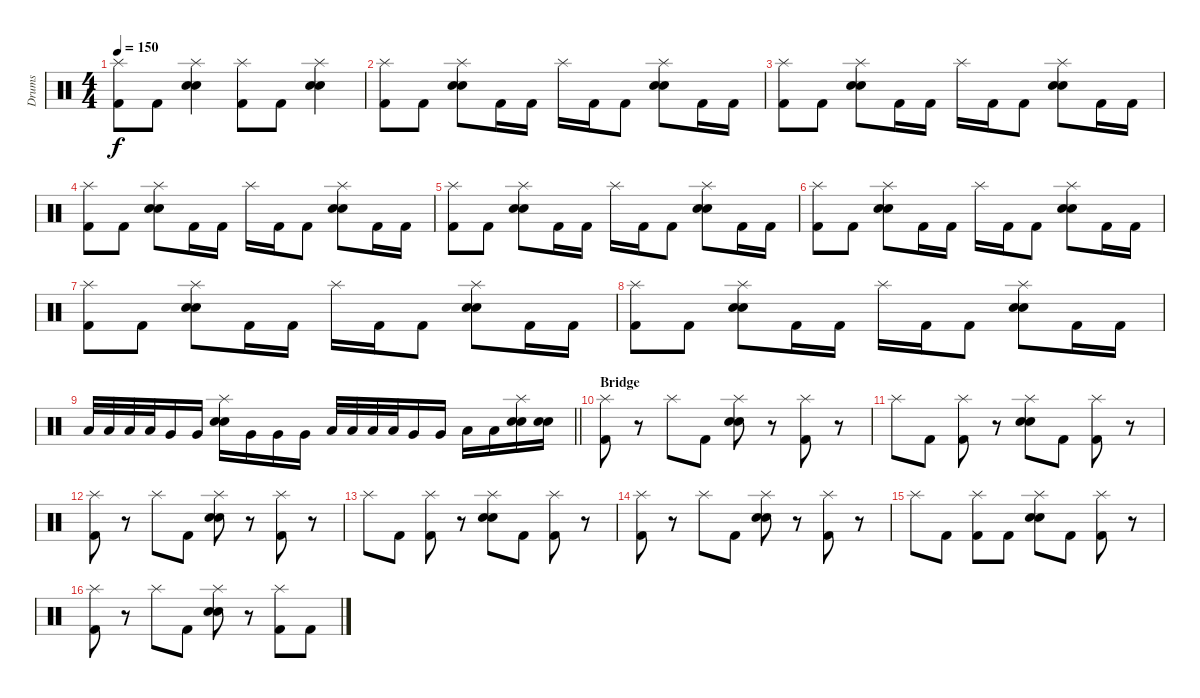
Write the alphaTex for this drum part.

\track ("Drums" "Drums") {instrument percussion}
\staff {score}
\articulation defaults
\ts (4 4)
\tempo 150
\clef neutral
\ks c
("Splash (hit)" "Kick (hit) 2").8{dy f} "Kick (hit) 2".8 ("Splash (hit)" "Electric Snare (hit)" "Snare (hit) 2").4 ("Splash (hit)" "Kick (hit) 2").8 "Kick (hit) 2".8 ("Splash (hit)" "Electric Snare (hit)" "Snare (hit) 2").4 |
("Splash (hit)" "Kick (hit) 2").8 "Kick (hit) 2".8 ("Splash (hit)" "Electric Snare (hit)" "Snare (hit) 2").8 "Kick (hit) 2".16 "Kick (hit) 2".16 "Splash (hit)".16 "Kick (hit) 2".16 "Kick (hit) 2".8 ("Splash (hit)" "Electric Snare (hit)" "Snare (hit) 2").8 "Kick (hit) 2".16 "Kick (hit) 2".16 |
("Splash (hit)" "Kick (hit) 2").8 "Kick (hit) 2".8 ("Splash (hit)" "Electric Snare (hit)" "Snare (hit) 2").8 "Kick (hit) 2".16 "Kick (hit) 2".16 "Splash (hit)".16 "Kick (hit) 2".16 "Kick (hit) 2".8 ("Splash (hit)" "Electric Snare (hit)" "Snare (hit) 2").8 "Kick (hit) 2".16 "Kick (hit) 2".16 |
("Splash (hit)" "Kick (hit) 2").8 "Kick (hit) 2".8 ("Splash (hit)" "Electric Snare (hit)" "Snare (hit) 2").8 "Kick (hit) 2".16 "Kick (hit) 2".16 "Splash (hit)".16 "Kick (hit) 2".16 "Kick (hit) 2".8 ("Splash (hit)" "Electric Snare (hit)" "Snare (hit) 2").8 "Kick (hit) 2".16 "Kick (hit) 2".16 |
("Splash (hit)" "Kick (hit) 2").8 "Kick (hit) 2".8 ("Splash (hit)" "Electric Snare (hit)" "Snare (hit) 2").8 "Kick (hit) 2".16 "Kick (hit) 2".16 "Splash (hit)".16 "Kick (hit) 2".16 "Kick (hit) 2".8 ("Splash (hit)" "Electric Snare (hit)" "Snare (hit) 2").8 "Kick (hit) 2".16 "Kick (hit) 2".16 |
("Splash (hit)" "Kick (hit) 2").8 "Kick (hit) 2".8 ("Splash (hit)" "Electric Snare (hit)" "Snare (hit) 2").8 "Kick (hit) 2".16 "Kick (hit) 2".16 "Splash (hit)".16 "Kick (hit) 2".16 "Kick (hit) 2".8 ("Splash (hit)" "Electric Snare (hit)" "Snare (hit) 2").8 "Kick (hit) 2".16 "Kick (hit) 2".16 |
("Splash (hit)" "Kick (hit) 2").8 "Kick (hit) 2".8 ("Splash (hit)" "Electric Snare (hit)" "Snare (hit) 2").8 "Kick (hit) 2".16 "Kick (hit) 2".16 "Splash (hit)".16 "Kick (hit) 2".16 "Kick (hit) 2".8 ("Splash (hit)" "Electric Snare (hit)" "Snare (hit) 2").8 "Kick (hit) 2".16 "Kick (hit) 2".16 |
("Splash (hit)" "Kick (hit) 2").8 "Kick (hit) 2".8 ("Splash (hit)" "Electric Snare (hit)" "Snare (hit) 2").8 "Kick (hit) 2".16 "Kick (hit) 2".16 "Splash (hit)".16 "Kick (hit) 2".16 "Kick (hit) 2".8 ("Splash (hit)" "Electric Snare (hit)" "Snare (hit) 2").8 "Kick (hit) 2".16 "Kick (hit) 2".16 |
\barLineRight lightlight "Low Tom (hit)".32 "Low Tom (hit)".32 "Low Tom (hit)".32 "Low Tom (hit)".32 "Very Low Tom (hit)".16 "Very Low Tom (hit)".16
("Splash (hit)" "Electric Snare (hit)" "Snare (hit) 2").16 "Very Low Tom (hit)".16 "Very Low Tom (hit)".16 "Very Low Tom (hit)".16 "Low Tom (hit)".32 "Low Tom (hit)".32 "Low Tom (hit)".32 "Low Tom (hit)".32 "Very Low Tom (hit)".16 "Very Low Tom (hit)".16 "Low Tom (hit)".16 "Low Tom (hit)".16 ("Splash (hit)" "Electric Snare (hit)" "Snare (hit) 2").16 ("Electric Snare (hit)" "Snare (hit) 2").16 |
\section ("" "Bridge")
("Splash (hit)" "Kick (hit) 2").8 r.8 "Splash (hit)".8 "Kick (hit) 2".8 ("Splash (hit)" "Electric Snare (hit)" "Snare (hit) 2").8 r.8 ("Splash (hit)" "Kick (hit) 2").8 r.8 |
"Splash (hit)".8 "Kick (hit) 2".8 ("Splash (hit)" "Kick (hit) 2").8 r.8 ("Splash (hit)" "Electric Snare (hit)" "Snare (hit) 2").8 "Kick (hit) 2".8 ("Splash (hit)" "Kick (hit) 2").8 r.8 |
("Splash (hit)" "Kick (hit) 2").8 r.8 "Splash (hit)".8 "Kick (hit) 2".8 ("Splash (hit)" "Electric Snare (hit)" "Snare (hit) 2").8 r.8 ("Splash (hit)" "Kick (hit) 2").8 r.8 |
"Splash (hit)".8 "Kick (hit) 2".8 ("Splash (hit)" "Kick (hit) 2").8 r.8 ("Splash (hit)" "Electric Snare (hit)" "Snare (hit) 2").8 "Kick (hit) 2".8 ("Splash (hit)" "Kick (hit) 2").8 r.8 |
("Splash (hit)" "Kick (hit) 2").8 r.8 "Splash (hit)".8 "Kick (hit) 2".8 ("Splash (hit)" "Electric Snare (hit)" "Snare (hit) 2").8 r.8 ("Splash (hit)" "Kick (hit) 2").8 r.8 |
"Splash (hit)".8 "Kick (hit) 2".8 ("Splash (hit)" "Kick (hit) 2").8 "Kick (hit) 2".8 ("Splash (hit)" "Electric Snare (hit)" "Snare (hit) 2").8 "Kick (hit) 2".8 ("Splash (hit)" "Kick (hit) 2").8 r.8 |
("Splash (hit)" "Kick (hit) 2").8 r.8 "Splash (hit)".8 "Kick (hit) 2".8 ("Splash (hit)" "Electric Snare (hit)" "Snare (hit) 2").8 r.8 ("Splash (hit)" "Kick (hit) 2").8 "Kick (hit) 2".8
